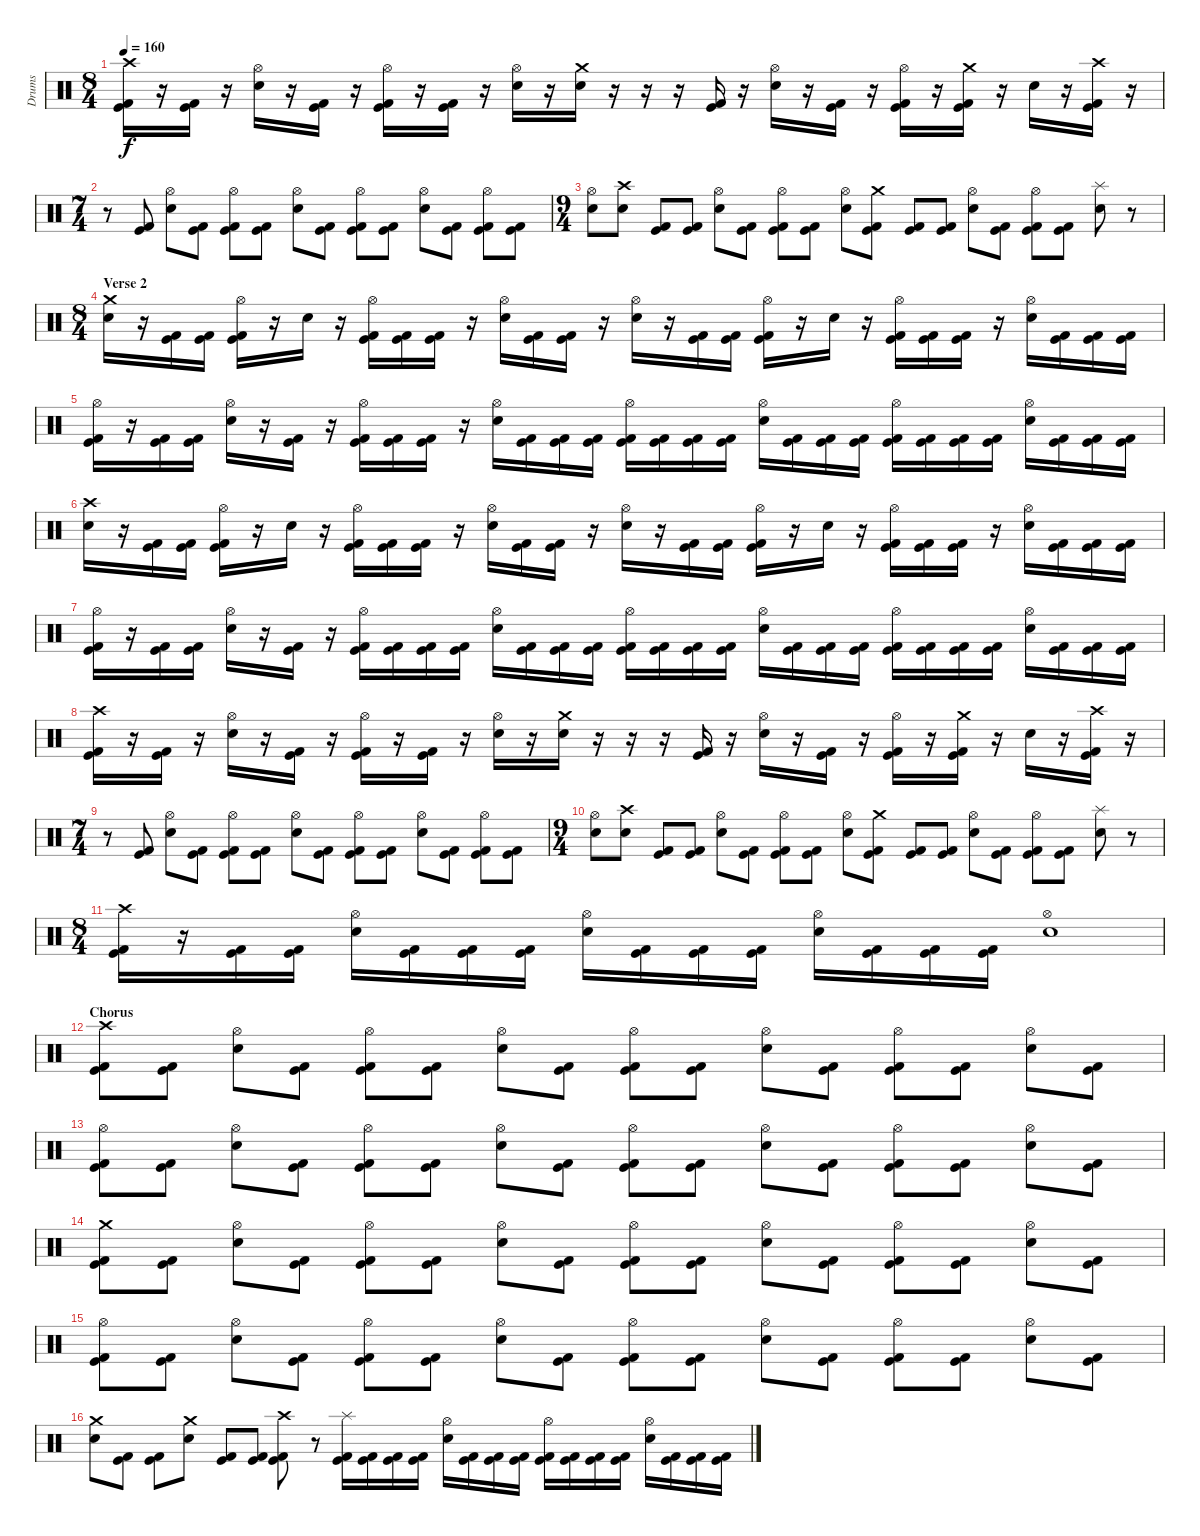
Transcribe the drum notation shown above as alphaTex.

\track ("Drums" "Drums") {instrument percussion}
\staff {score}
\articulation defaults
\ts (8 4)
\tempo 160
\clef neutral
\ks c
("Crash high (hit)" "Kick (hit)" "Kick (hit) 2").16{dy f} r.16 ("Kick (hit)" "Kick (hit) 2").16 r.16 ("Hi-Hat (open)" "Electric Snare (hit)").16 r.16 ("Kick (hit)" "Kick (hit) 2").16 r.16 ("Hi-Hat (open)" "Kick (hit)" "Kick (hit) 2").16 r.16 ("Kick (hit)" "Kick (hit) 2").16 r.16 ("Hi-Hat (open)" "Electric Snare (hit)").16 r.16 ("Crash medium (hit)" "Electric Snare (hit)").16 r.16 r.16 r.16 ("Kick (hit) 2" "Kick (hit)").16 r.16 ("Hi-Hat (open)" "Electric Snare (hit)").16 r.16 ("Kick (hit)" "Kick (hit) 2").16 r.16 ("Hi-Hat (open)" "Kick (hit)" "Kick (hit) 2").16 r.16 ("Crash medium (hit)" "Kick (hit)" "Kick (hit) 2").16 r.16 "Electric Snare (hit)".16 r.16 ("Crash high (hit)" "Kick (hit) 2" "Kick (hit)").16 r.16 |
\ts (7 4)
r.8 ("Kick (hit)" "Kick (hit) 2").8 ("Hi-Hat (open)" "Electric Snare (hit)").8 ("Kick (hit)" "Kick (hit) 2").8 ("Hi-Hat (open)" "Kick (hit)" "Kick (hit) 2").8 ("Kick (hit)" "Kick (hit) 2").8 ("Hi-Hat (open)" "Electric Snare (hit)").8 ("Kick (hit)" "Kick (hit) 2").8 ("Hi-Hat (open)" "Kick (hit)" "Kick (hit) 2").8 ("Kick (hit)" "Kick (hit) 2").8 ("Hi-Hat (open)" "Electric Snare (hit)").8 ("Kick (hit)" "Kick (hit) 2").8 ("Hi-Hat (open)" "Kick (hit)" "Kick (hit) 2").8 ("Kick (hit)" "Kick (hit) 2").8 |
\ts (9 4)
("Hi-Hat (open)" "Electric Snare (hit)").8 ("Crash high (hit)" "Electric Snare (hit)").8 ("Kick (hit)" "Kick (hit) 2").8 ("Kick (hit)" "Kick (hit) 2").8 ("Hi-Hat (open)" "Electric Snare (hit)").8 ("Kick (hit)" "Kick (hit) 2").8 ("Hi-Hat (open)" "Kick (hit)" "Kick (hit) 2").8 ("Kick (hit)" "Kick (hit) 2").8 ("Hi-Hat (open)" "Electric Snare (hit)").8 ("Crash medium (hit)" "Kick (hit)" "Kick (hit) 2").8 ("Kick (hit)" "Kick (hit) 2").8 ("Kick (hit)" "Kick (hit) 2").8 ("Hi-Hat (open)" "Electric Snare (hit)").8 ("Kick (hit)" "Kick (hit) 2").8 ("Hi-Hat (open)" "Kick (hit)" "Kick (hit) 2").8 ("Kick (hit)" "Kick (hit) 2").8 ("Splash (hit)" "Electric Snare (hit)").8 r.8 |
\ts (8 4)
\section ("" "Verse 2")
("Crash medium (hit)" "Electric Snare (hit)").16 r.16 ("Kick (hit)" "Kick (hit) 2").16 ("Kick (hit)" "Kick (hit) 2").16 ("Hi-Hat (open)" "Kick (hit)" "Kick (hit) 2").16 r.16 "Electric Snare (hit)".16 r.16 ("Hi-Hat (open)" "Kick (hit)" "Kick (hit) 2").16 ("Kick (hit)" "Kick (hit) 2").16 ("Kick (hit)" "Kick (hit) 2").16 r.16 ("Hi-Hat (open)" "Electric Snare (hit)").16 ("Kick (hit)" "Kick (hit) 2").16 ("Kick (hit)" "Kick (hit) 2").16 r.16 ("Hi-Hat (open)" "Electric Snare (hit)").16 r.16 ("Kick (hit)" "Kick (hit) 2").16 ("Kick (hit)" "Kick (hit) 2").16 ("Hi-Hat (open)" "Kick (hit)" "Kick (hit) 2").16 r.16 "Electric Snare (hit)".16 r.16 ("Hi-Hat (open)" "Kick (hit)" "Kick (hit) 2").16 ("Kick (hit)" "Kick (hit) 2").16 ("Kick (hit)" "Kick (hit) 2").16 r.16 ("Hi-Hat (open)" "Electric Snare (hit)").16 ("Kick (hit)" "Kick (hit) 2").16 ("Kick (hit)" "Kick (hit) 2").16 ("Kick (hit)" "Kick (hit) 2").16 |
("Hi-Hat (open)" "Kick (hit)" "Kick (hit) 2").16 r.16 ("Kick (hit)" "Kick (hit) 2").16 ("Kick (hit)" "Kick (hit) 2").16 ("Hi-Hat (open)" "Electric Snare (hit)").16 r.16 ("Kick (hit)" "Kick (hit) 2").16 r.16 ("Hi-Hat (open)" "Kick (hit)" "Kick (hit) 2").16 ("Kick (hit)" "Kick (hit) 2").16 ("Kick (hit)" "Kick (hit) 2").16 r.16 ("Hi-Hat (open)" "Electric Snare (hit)").16 ("Kick (hit)" "Kick (hit) 2").16 ("Kick (hit)" "Kick (hit) 2").16 ("Kick (hit)" "Kick (hit) 2").16 ("Hi-Hat (open)" "Kick (hit)" "Kick (hit) 2").16 ("Kick (hit)" "Kick (hit) 2").16 ("Kick (hit)" "Kick (hit) 2").16 ("Kick (hit)" "Kick (hit) 2").16 ("Hi-Hat (open)" "Electric Snare (hit)").16 ("Kick (hit)" "Kick (hit) 2").16 ("Kick (hit)" "Kick (hit) 2").16 ("Kick (hit)" "Kick (hit) 2").16 ("Hi-Hat (open)" "Kick (hit)" "Kick (hit) 2").16 ("Kick (hit)" "Kick (hit) 2").16 ("Kick (hit)" "Kick (hit) 2").16 ("Kick (hit)" "Kick (hit) 2").16 ("Hi-Hat (open)" "Electric Snare (hit)").16 ("Kick (hit)" "Kick (hit) 2").16 ("Kick (hit)" "Kick (hit) 2").16 ("Kick (hit)" "Kick (hit) 2").16 |
("Crash high (hit)" "Electric Snare (hit)").16 r.16 ("Kick (hit)" "Kick (hit) 2").16 ("Kick (hit)" "Kick (hit) 2").16 ("Hi-Hat (open)" "Kick (hit)" "Kick (hit) 2").16 r.16 "Electric Snare (hit)".16 r.16 ("Hi-Hat (open)" "Kick (hit)" "Kick (hit) 2").16 ("Kick (hit)" "Kick (hit) 2").16 ("Kick (hit)" "Kick (hit) 2").16 r.16 ("Hi-Hat (open)" "Electric Snare (hit)").16 ("Kick (hit)" "Kick (hit) 2").16 ("Kick (hit)" "Kick (hit) 2").16 r.16 ("Hi-Hat (open)" "Electric Snare (hit)").16 r.16 ("Kick (hit)" "Kick (hit) 2").16 ("Kick (hit)" "Kick (hit) 2").16 ("Hi-Hat (open)" "Kick (hit)" "Kick (hit) 2").16 r.16 "Electric Snare (hit)".16 r.16 ("Hi-Hat (open)" "Kick (hit)" "Kick (hit) 2").16 ("Kick (hit)" "Kick (hit) 2").16 ("Kick (hit)" "Kick (hit) 2").16 r.16 ("Hi-Hat (open)" "Electric Snare (hit)").16 ("Kick (hit)" "Kick (hit) 2").16 ("Kick (hit)" "Kick (hit) 2").16 ("Kick (hit)" "Kick (hit) 2").16 |
("Hi-Hat (open)" "Kick (hit)" "Kick (hit) 2").16 r.16 ("Kick (hit)" "Kick (hit) 2").16 ("Kick (hit)" "Kick (hit) 2").16 ("Hi-Hat (open)" "Electric Snare (hit)").16 r.16 ("Kick (hit)" "Kick (hit) 2").16 r.16 ("Hi-Hat (open)" "Kick (hit)" "Kick (hit) 2").16 ("Kick (hit)" "Kick (hit) 2").16 ("Kick (hit)" "Kick (hit) 2").16 ("Kick (hit) 2" "Kick (hit)").16 ("Hi-Hat (open)" "Electric Snare (hit)").16 ("Kick (hit)" "Kick (hit) 2").16 ("Kick (hit)" "Kick (hit) 2").16 ("Kick (hit)" "Kick (hit) 2").16 ("Hi-Hat (open)" "Kick (hit)" "Kick (hit) 2").16 ("Kick (hit)" "Kick (hit) 2").16 ("Kick (hit)" "Kick (hit) 2").16 ("Kick (hit)" "Kick (hit) 2").16 ("Hi-Hat (open)" "Electric Snare (hit)").16 ("Kick (hit)" "Kick (hit) 2").16 ("Kick (hit)" "Kick (hit) 2").16 ("Kick (hit)" "Kick (hit) 2").16 ("Hi-Hat (open)" "Kick (hit)" "Kick (hit) 2").16 ("Kick (hit)" "Kick (hit) 2").16 ("Kick (hit)" "Kick (hit) 2").16 ("Kick (hit)" "Kick (hit) 2").16 ("Hi-Hat (open)" "Electric Snare (hit)").16 ("Kick (hit)" "Kick (hit) 2").16 ("Kick (hit)" "Kick (hit) 2").16 ("Kick (hit)" "Kick (hit) 2").16 |
("Crash high (hit)" "Kick (hit)" "Kick (hit) 2").16 r.16 ("Kick (hit)" "Kick (hit) 2").16 r.16 ("Hi-Hat (open)" "Electric Snare (hit)").16 r.16 ("Kick (hit)" "Kick (hit) 2").16 r.16 ("Hi-Hat (open)" "Kick (hit)" "Kick (hit) 2").16 r.16 ("Kick (hit)" "Kick (hit) 2").16 r.16 ("Hi-Hat (open)" "Electric Snare (hit)").16 r.16 ("Crash medium (hit)" "Electric Snare (hit)").16 r.16 r.16 r.16 ("Kick (hit) 2" "Kick (hit)").16 r.16 ("Hi-Hat (open)" "Electric Snare (hit)").16 r.16 ("Kick (hit)" "Kick (hit) 2").16 r.16 ("Hi-Hat (open)" "Kick (hit)" "Kick (hit) 2").16 r.16 ("Crash medium (hit)" "Kick (hit)" "Kick (hit) 2").16 r.16 "Electric Snare (hit)".16 r.16 ("Crash high (hit)" "Kick (hit) 2" "Kick (hit)").16 r.16 |
\ts (7 4)
r.8 ("Kick (hit)" "Kick (hit) 2").8 ("Hi-Hat (open)" "Electric Snare (hit)").8 ("Kick (hit)" "Kick (hit) 2").8 ("Hi-Hat (open)" "Kick (hit)" "Kick (hit) 2").8 ("Kick (hit)" "Kick (hit) 2").8 ("Hi-Hat (open)" "Electric Snare (hit)").8 ("Kick (hit)" "Kick (hit) 2").8 ("Hi-Hat (open)" "Kick (hit)" "Kick (hit) 2").8 ("Kick (hit)" "Kick (hit) 2").8 ("Hi-Hat (open)" "Electric Snare (hit)").8 ("Kick (hit)" "Kick (hit) 2").8 ("Hi-Hat (open)" "Kick (hit)" "Kick (hit) 2").8 ("Kick (hit)" "Kick (hit) 2").8 |
\ts (9 4)
("Hi-Hat (open)" "Electric Snare (hit)").8 ("Crash high (hit)" "Electric Snare (hit)").8 ("Kick (hit)" "Kick (hit) 2").8 ("Kick (hit)" "Kick (hit) 2").8 ("Hi-Hat (open)" "Electric Snare (hit)").8 ("Kick (hit)" "Kick (hit) 2").8 ("Hi-Hat (open)" "Kick (hit)" "Kick (hit) 2").8 ("Kick (hit)" "Kick (hit) 2").8 ("Hi-Hat (open)" "Electric Snare (hit)").8 ("Crash medium (hit)" "Kick (hit)" "Kick (hit) 2").8 ("Kick (hit)" "Kick (hit) 2").8 ("Kick (hit)" "Kick (hit) 2").8 ("Hi-Hat (open)" "Electric Snare (hit)").8 ("Kick (hit)" "Kick (hit) 2").8 ("Hi-Hat (open)" "Kick (hit)" "Kick (hit) 2").8 ("Kick (hit)" "Kick (hit) 2").8 ("Splash (hit)" "Electric Snare (hit)").8 r.8 |
\ts (8 4)
("Crash high (hit)" "Kick (hit)" "Kick (hit) 2").16 r.16 ("Kick (hit)" "Kick (hit) 2").16 ("Kick (hit)" "Kick (hit) 2").16 ("Hi-Hat (open)" "Electric Snare (hit)").16 ("Kick (hit)" "Kick (hit) 2").16 ("Kick (hit)" "Kick (hit) 2").16 ("Kick (hit)" "Kick (hit) 2").16 ("Hi-Hat (open)" "Electric Snare (hit)").16 ("Kick (hit)" "Kick (hit) 2").16 ("Kick (hit)" "Kick (hit) 2").16 ("Kick (hit)" "Kick (hit) 2").16 ("Hi-Hat (open)" "Electric Snare (hit)").16 ("Kick (hit)" "Kick (hit) 2").16 ("Kick (hit)" "Kick (hit) 2").16 ("Kick (hit)" "Kick (hit) 2").16 ("Hi-Hat (open)" "Electric Snare (hit)").1 |
\section ("" "Chorus")
("Crash high (hit)" "Kick (hit)" "Kick (hit) 2").8 ("Kick (hit)" "Kick (hit) 2").8 ("Hi-Hat (open)" "Electric Snare (hit)").8 ("Kick (hit)" "Kick (hit) 2").8 ("Hi-Hat (open)" "Kick (hit)" "Kick (hit) 2").8 ("Kick (hit)" "Kick (hit) 2").8 ("Hi-Hat (open)" "Electric Snare (hit)").8 ("Kick (hit)" "Kick (hit) 2").8 ("Hi-Hat (open)" "Kick (hit)" "Kick (hit) 2").8 ("Kick (hit)" "Kick (hit) 2").8 ("Hi-Hat (open)" "Electric Snare (hit)").8 ("Kick (hit)" "Kick (hit) 2").8 ("Hi-Hat (open)" "Kick (hit)" "Kick (hit) 2").8 ("Kick (hit)" "Kick (hit) 2").8 ("Hi-Hat (open)" "Electric Snare (hit)").8 ("Kick (hit)" "Kick (hit) 2").8 |
("Hi-Hat (open)" "Kick (hit)" "Kick (hit) 2").8 ("Kick (hit)" "Kick (hit) 2").8 ("Hi-Hat (open)" "Electric Snare (hit)").8 ("Kick (hit)" "Kick (hit) 2").8 ("Hi-Hat (open)" "Kick (hit)" "Kick (hit) 2").8 ("Kick (hit)" "Kick (hit) 2").8 ("Hi-Hat (open)" "Electric Snare (hit)").8 ("Kick (hit)" "Kick (hit) 2").8 ("Hi-Hat (open)" "Kick (hit)" "Kick (hit) 2").8 ("Kick (hit)" "Kick (hit) 2").8 ("Hi-Hat (open)" "Electric Snare (hit)").8 ("Kick (hit)" "Kick (hit) 2").8 ("Hi-Hat (open)" "Kick (hit)" "Kick (hit) 2").8 ("Kick (hit)" "Kick (hit) 2").8 ("Hi-Hat (open)" "Electric Snare (hit)").8 ("Kick (hit)" "Kick (hit) 2").8 |
("Crash medium (hit)" "Kick (hit)" "Kick (hit) 2").8 ("Kick (hit)" "Kick (hit) 2").8 ("Hi-Hat (open)" "Electric Snare (hit)").8 ("Kick (hit)" "Kick (hit) 2").8 ("Hi-Hat (open)" "Kick (hit)" "Kick (hit) 2").8 ("Kick (hit)" "Kick (hit) 2").8 ("Hi-Hat (open)" "Electric Snare (hit)").8 ("Kick (hit)" "Kick (hit) 2").8 ("Hi-Hat (open)" "Kick (hit)" "Kick (hit) 2").8 ("Kick (hit)" "Kick (hit) 2").8 ("Hi-Hat (open)" "Electric Snare (hit)").8 ("Kick (hit)" "Kick (hit) 2").8 ("Hi-Hat (open)" "Kick (hit)" "Kick (hit) 2").8 ("Kick (hit)" "Kick (hit) 2").8 ("Hi-Hat (open)" "Electric Snare (hit)").8 ("Kick (hit)" "Kick (hit) 2").8 |
("Hi-Hat (open)" "Kick (hit)" "Kick (hit) 2").8 ("Kick (hit)" "Kick (hit) 2").8 ("Hi-Hat (open)" "Electric Snare (hit)").8 ("Kick (hit)" "Kick (hit) 2").8 ("Hi-Hat (open)" "Kick (hit)" "Kick (hit) 2").8 ("Kick (hit)" "Kick (hit) 2").8 ("Hi-Hat (open)" "Electric Snare (hit)").8 ("Kick (hit)" "Kick (hit) 2").8 ("Hi-Hat (open)" "Kick (hit)" "Kick (hit) 2").8 ("Kick (hit)" "Kick (hit) 2").8 ("Hi-Hat (open)" "Electric Snare (hit)").8 ("Kick (hit)" "Kick (hit) 2").8 ("Hi-Hat (open)" "Kick (hit)" "Kick (hit) 2").8 ("Kick (hit)" "Kick (hit) 2").8 ("Hi-Hat (open)" "Electric Snare (hit)").8 ("Kick (hit)" "Kick (hit) 2").8 |
("Crash medium (hit)" "Electric Snare (hit)").8 ("Kick (hit)" "Kick (hit) 2").8 ("Kick (hit)" "Kick (hit) 2").8 ("Crash medium (hit)" "Electric Snare (hit)").8 ("Kick (hit)" "Kick (hit) 2").8 ("Kick (hit)" "Kick (hit) 2").8 ("Crash high (hit)" "Kick (hit)" "Kick (hit) 2").8 r.8 ("Splash (hit)" "Kick (hit)" "Kick (hit) 2").16 ("Kick (hit)" "Kick (hit) 2").16 ("Kick (hit)" "Kick (hit) 2").16 ("Kick (hit)" "Kick (hit) 2").16 ("Hi-Hat (open)" "Electric Snare (hit)").16 ("Kick (hit)" "Kick (hit) 2").16 ("Kick (hit)" "Kick (hit) 2").16 ("Kick (hit)" "Kick (hit) 2").16 ("Hi-Hat (open)" "Kick (hit)" "Kick (hit) 2").16 ("Kick (hit)" "Kick (hit) 2").16 ("Kick (hit)" "Kick (hit) 2").16 ("Kick (hit)" "Kick (hit) 2").16 ("Hi-Hat (open)" "Electric Snare (hit)").16 ("Kick (hit)" "Kick (hit) 2").16 ("Kick (hit)" "Kick (hit) 2").16 ("Kick (hit)" "Kick (hit) 2").16
